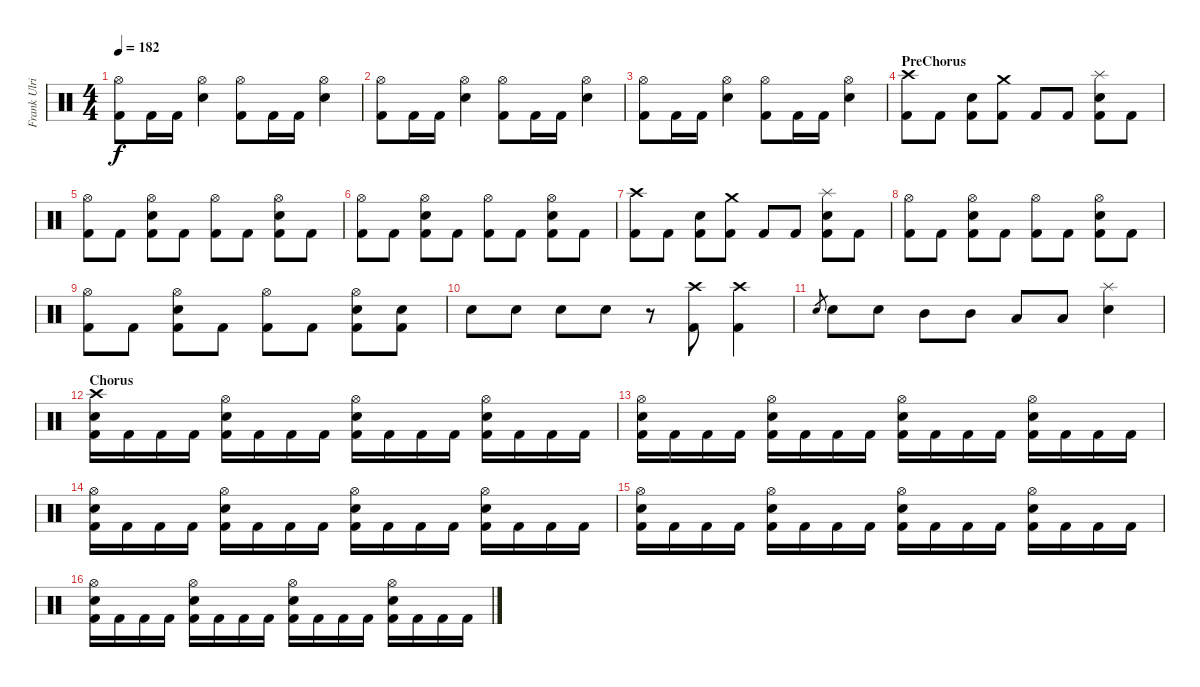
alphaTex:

\track ("Frank Ulrich" "Frank Ulri") {instrument percussion}
\staff {score}
\articulation defaults
\ts (4 4)
\tempo 182
\clef neutral
\ks c
("Hi-Hat (open)" "Kick (hit) 2").8{dy f} "Kick (hit) 2".16 "Kick (hit) 2".16 ("Hi-Hat (open)" "Snare (hit) 2").4 ("Hi-Hat (open)" "Kick (hit) 2").8 "Kick (hit) 2".16 "Kick (hit) 2".16 ("Hi-Hat (open)" "Snare (hit) 2").4 |
("Hi-Hat (open)" "Kick (hit) 2").8 "Kick (hit) 2".16 "Kick (hit) 2".16 ("Hi-Hat (open)" "Snare (hit) 2").4 ("Hi-Hat (open)" "Kick (hit) 2").8 "Kick (hit) 2".16 "Kick (hit) 2".16 ("Hi-Hat (open)" "Snare (hit) 2").4 |
("Hi-Hat (open)" "Kick (hit) 2").8 "Kick (hit) 2".16 "Kick (hit) 2".16 ("Hi-Hat (open)" "Snare (hit) 2").4 ("Hi-Hat (open)" "Kick (hit) 2").8 "Kick (hit) 2".16 "Kick (hit) 2".16 ("Hi-Hat (open)" "Snare (hit) 2").4 |
\section ("" "PreChorus")
("Crash high (hit)" "Kick (hit) 2").8 "Kick (hit) 2".8 ("Snare (hit) 2" "Kick (hit) 2").8 ("Crash medium (hit)" "Kick (hit) 2").8 "Kick (hit) 2".8 "Kick (hit) 2".8 ("Splash (hit)" "Snare (hit) 2" "Kick (hit) 2").8 "Kick (hit) 2".8 |
("Hi-Hat (open)" "Kick (hit) 2").8 "Kick (hit) 2".8 ("Hi-Hat (open)" "Snare (hit) 2" "Kick (hit) 2").8 "Kick (hit) 2".8 ("Hi-Hat (open)" "Kick (hit) 2").8 "Kick (hit) 2".8 ("Hi-Hat (open)" "Snare (hit) 2" "Kick (hit) 2").8 "Kick (hit) 2".8 |
("Hi-Hat (open)" "Kick (hit) 2").8 "Kick (hit) 2".8 ("Hi-Hat (open)" "Snare (hit) 2" "Kick (hit) 2").8 "Kick (hit) 2".8 ("Hi-Hat (open)" "Kick (hit) 2").8 "Kick (hit) 2".8 ("Hi-Hat (open)" "Snare (hit) 2" "Kick (hit) 2").8 "Kick (hit) 2".8 |
("Crash high (hit)" "Kick (hit) 2").8 "Kick (hit) 2".8 ("Snare (hit) 2" "Kick (hit) 2").8 ("Crash medium (hit)" "Kick (hit) 2").8 "Kick (hit) 2".8 "Kick (hit) 2".8 ("Splash (hit)" "Snare (hit) 2" "Kick (hit) 2").8 "Kick (hit) 2".8 |
("Hi-Hat (open)" "Kick (hit) 2").8 "Kick (hit) 2".8 ("Hi-Hat (open)" "Snare (hit) 2" "Kick (hit) 2").8 "Kick (hit) 2".8 ("Hi-Hat (open)" "Kick (hit) 2").8 "Kick (hit) 2".8 ("Hi-Hat (open)" "Snare (hit) 2" "Kick (hit) 2").8 "Kick (hit) 2".8 |
("Hi-Hat (open)" "Kick (hit) 2").8 "Kick (hit) 2".8 ("Hi-Hat (open)" "Snare (hit) 2" "Kick (hit) 2").8 "Kick (hit) 2".8 ("Hi-Hat (open)" "Kick (hit) 2").8 "Kick (hit) 2".8 ("Hi-Hat (open)" "Snare (hit) 2" "Kick (hit) 2").8 ("Snare (hit) 2" "Kick (hit) 2").8 |
"Snare (hit) 2".8 "Snare (hit) 2".8 "Snare (hit) 2".8 "Snare (hit) 2".8 r.8 ("Crash high (hit)" "Kick (hit) 2").8 ("Crash high (hit)" "Kick (hit) 2").4 |
"Snare (hit) 2".8{gr} "Snare (hit) 2".8 "Snare (hit) 2".8 "Mid Tom (hit)".8 "Mid Tom (hit)".8 "Low Tom (hit)".8 "Low Tom (hit)".8 ("Splash (hit)" "Snare (hit) 2").4 |
\section ("" "Chorus")
("Crash high (hit)" "Snare (hit) 2" "Kick (hit) 2").16 "Kick (hit) 2".16 "Kick (hit) 2".16 "Kick (hit) 2".16 ("Hi-Hat (open)" "Snare (hit) 2" "Kick (hit) 2").16 "Kick (hit) 2".16 "Kick (hit) 2".16 "Kick (hit) 2".16 ("Hi-Hat (open)" "Snare (hit) 2" "Kick (hit) 2").16 "Kick (hit) 2".16 "Kick (hit) 2".16 "Kick (hit) 2".16 ("Hi-Hat (open)" "Snare (hit) 2" "Kick (hit) 2").16 "Kick (hit) 2".16 "Kick (hit) 2".16 "Kick (hit) 2".16 |
("Hi-Hat (open)" "Snare (hit) 2" "Kick (hit) 2").16 "Kick (hit) 2".16 "Kick (hit) 2".16 "Kick (hit) 2".16 ("Hi-Hat (open)" "Snare (hit) 2" "Kick (hit) 2").16 "Kick (hit) 2".16 "Kick (hit) 2".16 "Kick (hit) 2".16 ("Hi-Hat (open)" "Snare (hit) 2" "Kick (hit) 2").16 "Kick (hit) 2".16 "Kick (hit) 2".16 "Kick (hit) 2".16 ("Hi-Hat (open)" "Snare (hit) 2" "Kick (hit) 2").16 "Kick (hit) 2".16 "Kick (hit) 2".16 "Kick (hit) 2".16 |
("Hi-Hat (open)" "Snare (hit) 2" "Kick (hit) 2").16 "Kick (hit) 2".16 "Kick (hit) 2".16 "Kick (hit) 2".16 ("Hi-Hat (open)" "Snare (hit) 2" "Kick (hit) 2").16 "Kick (hit) 2".16 "Kick (hit) 2".16 "Kick (hit) 2".16 ("Hi-Hat (open)" "Snare (hit) 2" "Kick (hit) 2").16 "Kick (hit) 2".16 "Kick (hit) 2".16 "Kick (hit) 2".16 ("Hi-Hat (open)" "Snare (hit) 2" "Kick (hit) 2").16 "Kick (hit) 2".16 "Kick (hit) 2".16 "Kick (hit) 2".16 |
("Hi-Hat (open)" "Snare (hit) 2" "Kick (hit) 2").16 "Kick (hit) 2".16 "Kick (hit) 2".16 "Kick (hit) 2".16 ("Hi-Hat (open)" "Snare (hit) 2" "Kick (hit) 2").16 "Kick (hit) 2".16 "Kick (hit) 2".16 "Kick (hit) 2".16 ("Hi-Hat (open)" "Snare (hit) 2" "Kick (hit) 2").16 "Kick (hit) 2".16 "Kick (hit) 2".16 "Kick (hit) 2".16 ("Hi-Hat (open)" "Snare (hit) 2" "Kick (hit) 2").16 "Kick (hit) 2".16 "Kick (hit) 2".16 "Kick (hit) 2".16 |
("Hi-Hat (open)" "Snare (hit) 2" "Kick (hit) 2").16 "Kick (hit) 2".16 "Kick (hit) 2".16 "Kick (hit) 2".16 ("Hi-Hat (open)" "Snare (hit) 2" "Kick (hit) 2").16 "Kick (hit) 2".16 "Kick (hit) 2".16 "Kick (hit) 2".16 ("Hi-Hat (open)" "Snare (hit) 2" "Kick (hit) 2").16 "Kick (hit) 2".16 "Kick (hit) 2".16 "Kick (hit) 2".16 ("Hi-Hat (open)" "Snare (hit) 2" "Kick (hit) 2").16 "Kick (hit) 2".16 "Kick (hit) 2".16 "Kick (hit) 2".16
